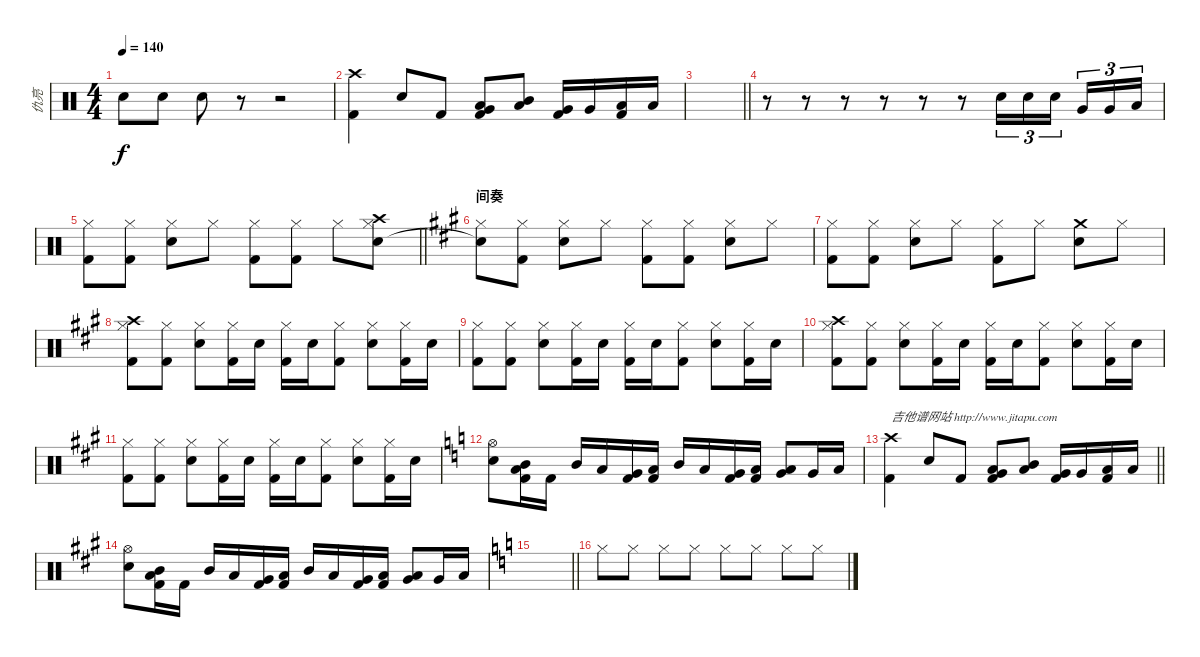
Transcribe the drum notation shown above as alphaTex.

\track ("仇亮" "仇亮") {instrument percussion}
\staff {score}
\articulation defaults
\ts (4 4)
\tempo 140
\clef neutral
\ks c "Electric Snare (hit)".8{dy f} "Electric Snare (hit)".8 "Electric Snare (hit)".8
r.8 r.2 |
("Crash high (hit)" "Kick (hit) 2").4 "Electric Snare (hit)".8 "Kick (hit) 2".8 ("Low Tom (hit)" "Very Low Tom (hit)" "Kick (hit) 2").8 ("Mid Tom (hit)" "Low Tom (hit)").8 ("Very Low Tom (hit)" "Kick (hit) 2").16 "Very Low Tom (hit)".16 ("Low Floor Tom (hit)" "Kick (hit) 2").16 "Low Floor Tom (hit)".16 |
\barLineRight lightlight
|
r.8 r.8 r.8 r.8 r.8 r.8 "Electric Snare (hit)".16{tu (3 2)} "Electric Snare (hit)".16{tu (3 2)} "Electric Snare (hit)".16{tu (3 2) beam splitsecondary} "Very Low Tom (hit)".16{tu (3 2)} "Very Low Tom (hit)".16{tu (3 2)} "Low Floor Tom (hit)".16{tu (3 2)} |
\barLineRight lightlight
("Hi-Hat (closed)" "Kick (hit) 2").8 ("Hi-Hat (closed)" "Kick (hit) 2").8 ("Hi-Hat (closed)" "Electric Snare (hit)").8 "Hi-Hat (closed)".8 ("Hi-Hat (closed)" "Kick (hit) 2").8 ("Hi-Hat (closed)" "Kick (hit) 2").8 "Hi-Hat (closed)".8 ("Electric Snare (hit)" "Crash high (hit)" "Hi-Hat (closed)").8 |
\section ("" "间奏")
\ks a
("Snare (hit)"{t} "Hi-Hat (closed)").8 ("Hi-Hat (closed)" "Kick (hit) 2").8 ("Hi-Hat (closed)" "Electric Snare (hit)").8 "Hi-Hat (closed)".8 ("Hi-Hat (closed)" "Kick (hit) 2").8 ("Hi-Hat (closed)" "Kick (hit) 2").8 ("Hi-Hat (closed)" "Electric Snare (hit)").8 "Hi-Hat (closed)".8 |
("Hi-Hat (closed)" "Kick (hit) 2").8 ("Hi-Hat (closed)" "Kick (hit) 2").8 ("Hi-Hat (closed)" "Electric Snare (hit)").8 "Hi-Hat (closed)".8 ("Hi-Hat (closed)" "Kick (hit) 2").8 "Hi-Hat (closed)".8 ("Crash medium (hit)" "Electric Snare (hit)").8 "Hi-Hat (closed)".8 |
("Crash high (hit)" "Hi-Hat (closed)" "Kick (hit) 2").8 ("Hi-Hat (closed)" "Kick (hit) 2").8 ("Hi-Hat (closed)" "Electric Snare (hit)").8 ("Hi-Hat (closed)" "Kick (hit) 2").16 "Electric Snare (hit)".16 ("Hi-Hat (closed)" "Kick (hit) 2").16 "Electric Snare (hit)".16 ("Hi-Hat (closed)" "Kick (hit) 2").8 ("Hi-Hat (closed)" "Electric Snare (hit)").8 ("Hi-Hat (closed)" "Kick (hit) 2").16 "Electric Snare (hit)".16 |
("Hi-Hat (closed)" "Kick (hit) 2").8 ("Hi-Hat (closed)" "Kick (hit) 2").8 ("Hi-Hat (closed)" "Electric Snare (hit)").8 ("Hi-Hat (closed)" "Kick (hit) 2").16 "Electric Snare (hit)".16 ("Hi-Hat (closed)" "Kick (hit) 2").16 "Electric Snare (hit)".16 ("Hi-Hat (closed)" "Kick (hit) 2").8 ("Hi-Hat (closed)" "Electric Snare (hit)").8 ("Hi-Hat (closed)" "Kick (hit) 2").16 "Electric Snare (hit)".16 |
("Crash high (hit)" "Hi-Hat (closed)" "Kick (hit) 2").8 ("Hi-Hat (closed)" "Kick (hit) 2").8 ("Hi-Hat (closed)" "Electric Snare (hit)").8 ("Hi-Hat (closed)" "Kick (hit) 2").16 "Electric Snare (hit)".16 ("Hi-Hat (closed)" "Kick (hit) 2").16 "Electric Snare (hit)".16 ("Hi-Hat (closed)" "Kick (hit) 2").8 ("Hi-Hat (closed)" "Electric Snare (hit)").8 ("Hi-Hat (closed)" "Kick (hit) 2").16 "Electric Snare (hit)".16 |
("Hi-Hat (closed)" "Kick (hit) 2").8 ("Hi-Hat (closed)" "Kick (hit) 2").8 ("Hi-Hat (closed)" "Electric Snare (hit)").8 ("Hi-Hat (closed)" "Kick (hit) 2").16 "Electric Snare (hit)".16 ("Hi-Hat (closed)" "Kick (hit) 2").16 "Electric Snare (hit)".16 ("Hi-Hat (closed)" "Kick (hit) 2").8 ("Hi-Hat (closed)" "Electric Snare (hit)").8 ("Hi-Hat (closed)" "Kick (hit) 2").16 "Electric Snare (hit)".16 |
\ks c
("Hi-Hat (open)" "Electric Snare (hit)").8 ("Mid Tom (hit)" "Low Tom (hit)" "Kick (hit) 2").16 "Kick (hit) 2".16 "Mid Tom (hit)".16 "Low Tom (hit)".16 ("Very Low Tom (hit)" "Kick (hit) 2").16 ("Low Floor Tom (hit)" "Kick (hit) 2").16 "Mid Tom (hit)".16 "Low Tom (hit)".16 ("Very Low Tom (hit)" "Kick (hit) 2").16 ("Low Floor Tom (hit)" "Kick (hit) 2").16 ("Low Tom (hit)" "Very Low Tom (hit)").8 "Very Low Tom (hit)".16 "Low Floor Tom (hit)".16 |
\barLineRight lightlight
("Crash high (hit)" "Kick (hit) 2").4{txt "吉他谱网站 http://www.jitapu.com"} "Electric Snare (hit)".8 "Kick (hit) 2".8 ("Low Tom (hit)" "Very Low Tom (hit)" "Kick (hit) 2").8 ("Mid Tom (hit)" "Low Tom (hit)").8 ("Very Low Tom (hit)" "Kick (hit) 2").16 "Very Low Tom (hit)".16 ("Low Floor Tom (hit)" "Kick (hit) 2").16 "Low Floor Tom (hit)".16 |
\ks a
("Hi-Hat (open)" "Electric Snare (hit)").8 ("Mid Tom (hit)" "Low Tom (hit)" "Kick (hit) 2").16 "Kick (hit) 2".16 "Mid Tom (hit)".16 "Low Tom (hit)".16 ("Very Low Tom (hit)" "Kick (hit) 2").16 ("Low Floor Tom (hit)" "Kick (hit) 2").16 "Mid Tom (hit)".16 "Low Tom (hit)".16 ("Very Low Tom (hit)" "Kick (hit) 2").16 ("Low Floor Tom (hit)" "Kick (hit) 2").16 ("Low Tom (hit)" "Very Low Tom (hit)").8 "Very Low Tom (hit)".16 "Low Floor Tom (hit)".16 |
\barLineRight lightlight
\ks c
|
"Hi-Hat (closed)".8 "Hi-Hat (closed)".8 "Hi-Hat (closed)".8 "Hi-Hat (closed)".8 "Hi-Hat (closed)".8 "Hi-Hat (closed)".8 "Hi-Hat (closed)".8 "Hi-Hat (closed)".8
